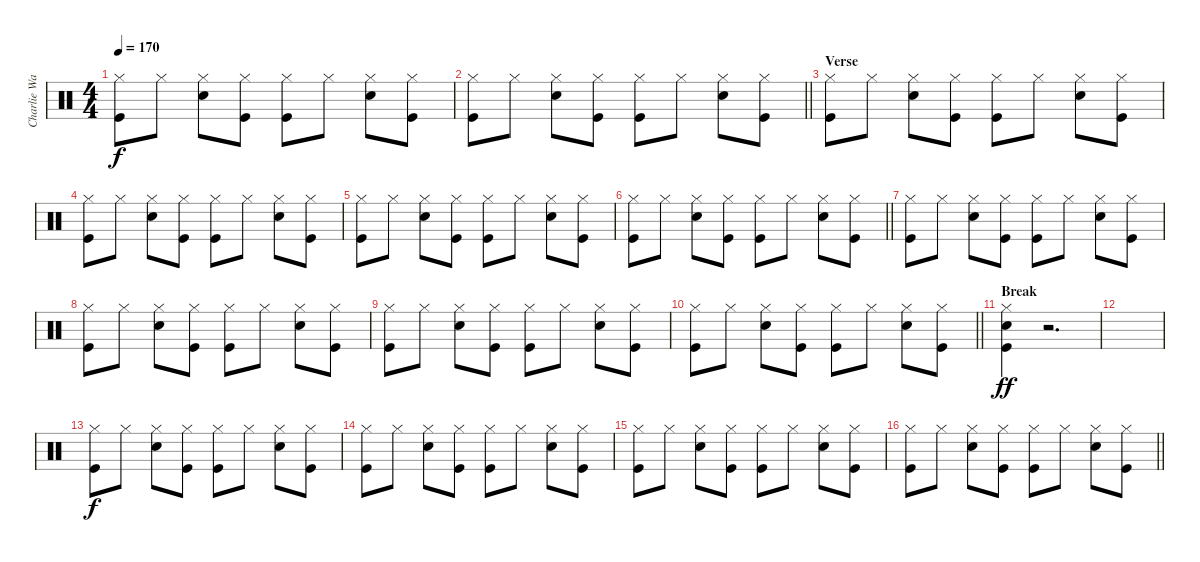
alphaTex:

\track ("Charlie Watts" "Charlie Wa") {instrument percussion}
\staff {score}
\articulation defaults
\ts (4 4)
\tempo 170
\clef neutral
\ks c
("Hi-Hat (closed)" "Kick (hit)").8{dy f} "Hi-Hat (closed)".8 ("Hi-Hat (closed)" "Snare (hit) 2").8 ("Hi-Hat (closed)" "Kick (hit)").8 ("Hi-Hat (closed)" "Kick (hit)").8 "Hi-Hat (closed)".8 ("Hi-Hat (closed)" "Snare (hit) 2").8 ("Hi-Hat (closed)" "Kick (hit)").8 |
\barLineRight lightlight
("Hi-Hat (closed)" "Kick (hit)").8 "Hi-Hat (closed)".8 ("Hi-Hat (closed)" "Snare (hit) 2").8 ("Hi-Hat (closed)" "Kick (hit)").8 ("Hi-Hat (closed)" "Kick (hit)").8 "Hi-Hat (closed)".8 ("Hi-Hat (closed)" "Snare (hit) 2").8 ("Hi-Hat (closed)" "Kick (hit)").8 |
\section ("" "Verse")
("Hi-Hat (closed)" "Kick (hit)").8 "Hi-Hat (closed)".8 ("Hi-Hat (closed)" "Snare (hit) 2").8 ("Hi-Hat (closed)" "Kick (hit)").8 ("Hi-Hat (closed)" "Kick (hit)").8 "Hi-Hat (closed)".8 ("Hi-Hat (closed)" "Snare (hit) 2").8 ("Hi-Hat (closed)" "Kick (hit)").8 |
("Hi-Hat (closed)" "Kick (hit)").8 "Hi-Hat (closed)".8 ("Hi-Hat (closed)" "Snare (hit) 2").8 ("Hi-Hat (closed)" "Kick (hit)").8 ("Hi-Hat (closed)" "Kick (hit)").8 "Hi-Hat (closed)".8 ("Hi-Hat (closed)" "Snare (hit) 2").8 ("Hi-Hat (closed)" "Kick (hit)").8 |
("Hi-Hat (closed)" "Kick (hit)").8 "Hi-Hat (closed)".8 ("Hi-Hat (closed)" "Snare (hit) 2").8 ("Hi-Hat (closed)" "Kick (hit)").8 ("Hi-Hat (closed)" "Kick (hit)").8 "Hi-Hat (closed)".8 ("Hi-Hat (closed)" "Snare (hit) 2").8 ("Hi-Hat (closed)" "Kick (hit)").8 |
\barLineRight lightlight
("Hi-Hat (closed)" "Kick (hit)").8 "Hi-Hat (closed)".8 ("Hi-Hat (closed)" "Snare (hit) 2").8 ("Hi-Hat (closed)" "Kick (hit)").8 ("Hi-Hat (closed)" "Kick (hit)").8 "Hi-Hat (closed)".8 ("Hi-Hat (closed)" "Snare (hit) 2").8 ("Hi-Hat (closed)" "Kick (hit)").8 |
("Hi-Hat (closed)" "Kick (hit)").8 "Hi-Hat (closed)".8 ("Hi-Hat (closed)" "Snare (hit) 2").8 ("Hi-Hat (closed)" "Kick (hit)").8 ("Hi-Hat (closed)" "Kick (hit)").8 "Hi-Hat (closed)".8 ("Hi-Hat (closed)" "Snare (hit) 2").8 ("Hi-Hat (closed)" "Kick (hit)").8 |
("Hi-Hat (closed)" "Kick (hit)").8 "Hi-Hat (closed)".8 ("Hi-Hat (closed)" "Snare (hit) 2").8 ("Hi-Hat (closed)" "Kick (hit)").8 ("Hi-Hat (closed)" "Kick (hit)").8 "Hi-Hat (closed)".8 ("Hi-Hat (closed)" "Snare (hit) 2").8 ("Hi-Hat (closed)" "Kick (hit)").8 |
("Hi-Hat (closed)" "Kick (hit)").8 "Hi-Hat (closed)".8 ("Hi-Hat (closed)" "Snare (hit) 2").8 ("Hi-Hat (closed)" "Kick (hit)").8 ("Hi-Hat (closed)" "Kick (hit)").8 "Hi-Hat (closed)".8 ("Hi-Hat (closed)" "Snare (hit) 2").8 ("Hi-Hat (closed)" "Kick (hit)").8 |
\barLineRight lightlight
("Hi-Hat (closed)" "Kick (hit)").8 "Hi-Hat (closed)".8 ("Hi-Hat (closed)" "Snare (hit) 2").8 ("Hi-Hat (closed)" "Kick (hit)").8 ("Hi-Hat (closed)" "Kick (hit)").8 "Hi-Hat (closed)".8 ("Hi-Hat (closed)" "Snare (hit) 2").8 ("Hi-Hat (closed)" "Kick (hit)").8 |
\section ("" "Break")
("Hi-Hat (closed)" "Snare (hit) 2" "Kick (hit)").4{dy ff} r.2{d} |
|
("Hi-Hat (closed)" "Kick (hit)").8{dy f} "Hi-Hat (closed)".8 ("Hi-Hat (closed)" "Snare (hit) 2").8 ("Hi-Hat (closed)" "Kick (hit)").8 ("Hi-Hat (closed)" "Kick (hit)").8 "Hi-Hat (closed)".8 ("Hi-Hat (closed)" "Snare (hit) 2").8 ("Hi-Hat (closed)" "Kick (hit)").8 |
("Hi-Hat (closed)" "Kick (hit)").8 "Hi-Hat (closed)".8 ("Hi-Hat (closed)" "Snare (hit) 2").8 ("Hi-Hat (closed)" "Kick (hit)").8 ("Hi-Hat (closed)" "Kick (hit)").8 "Hi-Hat (closed)".8 ("Hi-Hat (closed)" "Snare (hit) 2").8 ("Hi-Hat (closed)" "Kick (hit)").8 |
("Hi-Hat (closed)" "Kick (hit)").8 "Hi-Hat (closed)".8 ("Hi-Hat (closed)" "Snare (hit) 2").8 ("Hi-Hat (closed)" "Kick (hit)").8 ("Hi-Hat (closed)" "Kick (hit)").8 "Hi-Hat (closed)".8 ("Hi-Hat (closed)" "Snare (hit) 2").8 ("Hi-Hat (closed)" "Kick (hit)").8 |
\barLineRight lightlight
("Hi-Hat (closed)" "Kick (hit)").8 "Hi-Hat (closed)".8 ("Hi-Hat (closed)" "Snare (hit) 2").8 ("Hi-Hat (closed)" "Kick (hit)").8 ("Hi-Hat (closed)" "Kick (hit)").8 "Hi-Hat (closed)".8 ("Hi-Hat (closed)" "Snare (hit) 2").8 ("Hi-Hat (closed)" "Kick (hit)").8
